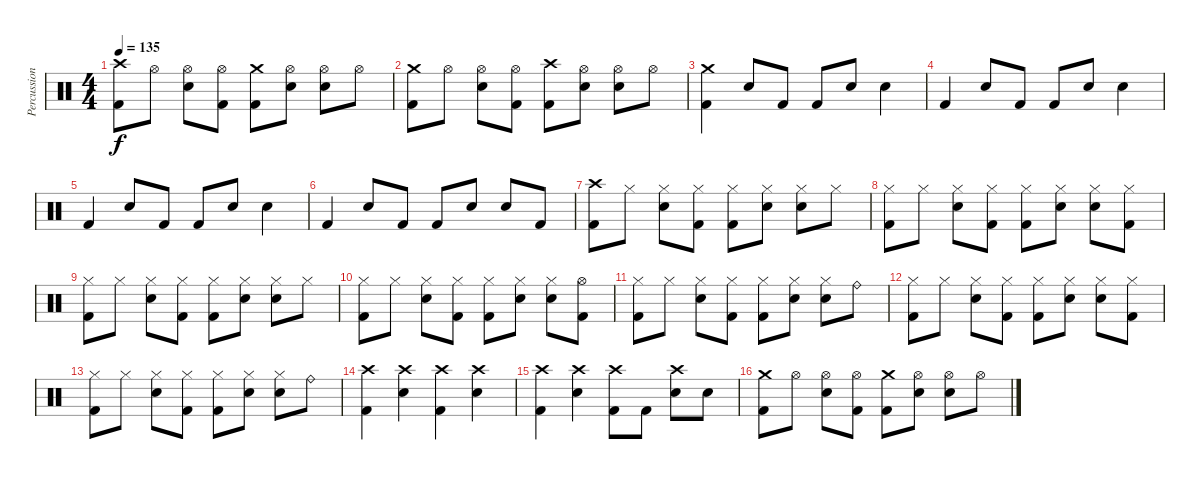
\track ("Percussion" "Percussion") {instrument percussion}
\staff {score}
\articulation defaults
\ts (4 4)
\tempo 135
\clef neutral
\ks c
("Crash high (hit)" "Kick (hit) 2").8{dy f} "Hi-Hat (open)".8 ("Hi-Hat (open)" "Snare (hit) 2").8 ("Hi-Hat (open)" "Kick (hit) 2").8 ("Crash medium (hit)" "Kick (hit) 2").8 ("Hi-Hat (open)" "Snare (hit) 2").8 ("Hi-Hat (open)" "Snare (hit) 2").8 "Hi-Hat (open)".8 |
("Crash medium (hit)" "Kick (hit) 2").8 "Hi-Hat (open)".8 ("Hi-Hat (open)" "Snare (hit) 2").8 ("Hi-Hat (open)" "Kick (hit) 2").8 ("Crash high (hit)" "Kick (hit) 2").8 ("Hi-Hat (open)" "Snare (hit) 2").8 ("Hi-Hat (open)" "Snare (hit) 2").8 "Hi-Hat (open)".8 |
("Crash medium (hit)" "Kick (hit) 2").4 "Snare (hit) 2".8 "Kick (hit) 2".8 "Kick (hit) 2".8 "Snare (hit) 2".8 "Snare (hit) 2".4 |
"Kick (hit) 2".4 "Snare (hit) 2".8 "Kick (hit) 2".8 "Kick (hit) 2".8 "Snare (hit) 2".8 "Snare (hit) 2".4 |
"Kick (hit) 2".4 "Snare (hit) 2".8 "Kick (hit) 2".8 "Kick (hit) 2".8 "Snare (hit) 2".8 "Snare (hit) 2".4 |
"Kick (hit) 2".4 "Snare (hit) 2".8 "Kick (hit) 2".8 "Kick (hit) 2".8 "Snare (hit) 2".8 "Snare (hit) 2".8 "Kick (hit) 2".8 |
("Crash high (hit)" "Kick (hit) 2").8 "Hi-Hat (closed)".8 ("Hi-Hat (closed)" "Snare (hit) 2").8 ("Hi-Hat (closed)" "Kick (hit) 2").8 ("Hi-Hat (closed)" "Kick (hit) 2").8 ("Hi-Hat (closed)" "Snare (hit) 2").8 ("Hi-Hat (closed)" "Snare (hit) 2").8 "Hi-Hat (closed)".8 |
("Hi-Hat (closed)" "Kick (hit) 2").8 "Hi-Hat (closed)".8 ("Hi-Hat (closed)" "Snare (hit) 2").8 ("Hi-Hat (closed)" "Kick (hit) 2").8 ("Hi-Hat (closed)" "Kick (hit) 2").8 ("Hi-Hat (closed)" "Snare (hit) 2").8 ("Hi-Hat (closed)" "Snare (hit) 2").8 ("Hi-Hat (closed)" "Kick (hit) 2").8 |
("Hi-Hat (closed)" "Kick (hit) 2").8 "Hi-Hat (closed)".8 ("Hi-Hat (closed)" "Snare (hit) 2").8 ("Hi-Hat (closed)" "Kick (hit) 2").8 ("Hi-Hat (closed)" "Kick (hit) 2").8 ("Hi-Hat (closed)" "Snare (hit) 2").8 ("Hi-Hat (closed)" "Snare (hit) 2").8 "Hi-Hat (closed)".8 |
("Hi-Hat (closed)" "Kick (hit) 2").8 "Hi-Hat (closed)".8 ("Hi-Hat (closed)" "Snare (hit) 2").8 ("Hi-Hat (closed)" "Kick (hit) 2").8 ("Hi-Hat (closed)" "Kick (hit) 2").8 ("Hi-Hat (closed)" "Snare (hit) 2").8 ("Hi-Hat (closed)" "Snare (hit) 2").8 ("Hi-Hat (open)" "Kick (hit) 2").8 |
("Hi-Hat (closed)" "Kick (hit) 2").8 "Hi-Hat (closed)".8 ("Hi-Hat (closed)" "Snare (hit) 2").8 ("Hi-Hat (closed)" "Kick (hit) 2").8 ("Hi-Hat (closed)" "Kick (hit) 2").8 ("Hi-Hat (closed)" "Snare (hit) 2").8 ("Hi-Hat (closed)" "Snare (hit) 2").8 "Ride (bell)".8 |
("Hi-Hat (closed)" "Kick (hit) 2").8 "Hi-Hat (closed)".8 ("Hi-Hat (closed)" "Snare (hit) 2").8 ("Hi-Hat (closed)" "Kick (hit) 2").8 ("Hi-Hat (closed)" "Kick (hit) 2").8 ("Hi-Hat (closed)" "Snare (hit) 2").8 ("Hi-Hat (closed)" "Snare (hit) 2").8 ("Hi-Hat (closed)" "Kick (hit) 2").8 |
("Hi-Hat (closed)" "Kick (hit) 2").8 "Hi-Hat (closed)".8 ("Hi-Hat (closed)" "Snare (hit) 2").8 ("Hi-Hat (closed)" "Kick (hit) 2").8 ("Hi-Hat (closed)" "Kick (hit) 2").8 ("Hi-Hat (closed)" "Snare (hit) 2").8 ("Hi-Hat (closed)" "Snare (hit) 2").8 "Ride (bell)".8 |
("Crash high (hit)" "Kick (hit) 2").4 ("Crash high (hit)" "Snare (hit) 2").4 ("Crash high (hit)" "Kick (hit) 2").4 ("Crash high (hit)" "Snare (hit) 2").4 |
("Crash high (hit)" "Kick (hit) 2").4 ("Crash high (hit)" "Snare (hit) 2").4 ("Crash high (hit)" "Kick (hit) 2").8 "Kick (hit) 2".8 ("Crash high (hit)" "Snare (hit) 2").8 "Snare (hit) 2".8 |
("Crash medium (hit)" "Kick (hit) 2").8 "Hi-Hat (open)".8 ("Hi-Hat (open)" "Snare (hit) 2").8 ("Hi-Hat (open)" "Kick (hit) 2").8 ("Crash medium (hit)" "Kick (hit) 2").8 ("Hi-Hat (open)" "Snare (hit) 2").8 ("Hi-Hat (open)" "Snare (hit) 2").8 "Hi-Hat (open)".8
